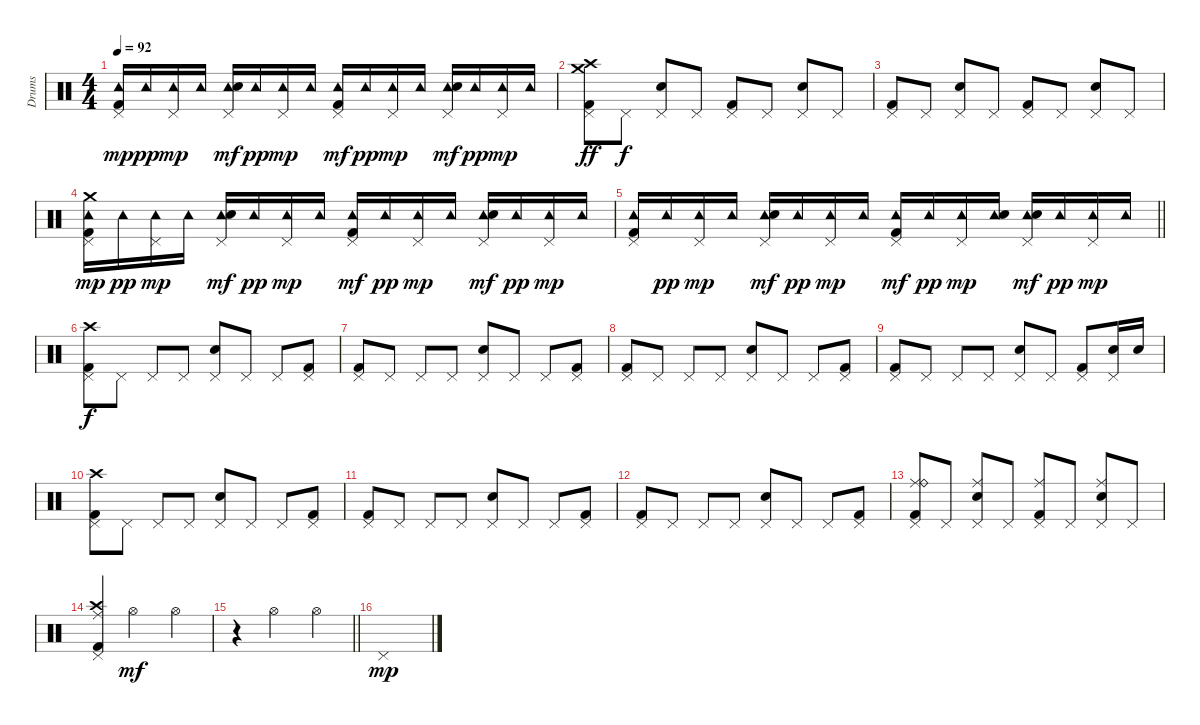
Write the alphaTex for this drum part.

\track ("Drums" "Drums") {instrument percussion}
\staff {score}
\articulation defaults
\ts (4 4)
\tempo 92
\clef neutral
\ks c
("Pedal Hi-Hat (hit)" "Tambourine (hit)" "Kick (hit) 2").16{dy mp} "Tambourine (hit)".16{dy pp} ("Pedal Hi-Hat (hit)" "Tambourine (hit)").16{dy mp} "Tambourine (hit)".16 ("Pedal Hi-Hat (hit)" "Tambourine (hit)" "Electric Snare (hit)").16{dy mf} "Tambourine (hit)".16{dy pp} ("Pedal Hi-Hat (hit)" "Tambourine (hit)").16{dy mp} "Tambourine (hit)".16 ("Pedal Hi-Hat (hit)" "Tambourine (hit)" "Kick (hit) 2").16{dy mf} "Tambourine (hit)".16{dy pp} ("Pedal Hi-Hat (hit)" "Tambourine (hit)").16{dy mp} "Tambourine (hit)".16 ("Pedal Hi-Hat (hit)" "Tambourine (hit)" "Electric Snare (hit)").16{dy mf} "Tambourine (hit)".16{dy pp} ("Pedal Hi-Hat (hit)" "Tambourine (hit)").16{dy mp} "Tambourine (hit)".16 |
("Pedal Hi-Hat (hit)" "Crash high (hit)" "Crash medium (hit)" "Kick (hit) 2").8{dy ff} "Pedal Hi-Hat (hit)".8{dy f} ("Pedal Hi-Hat (hit)" "Electric Snare (hit)").8 "Pedal Hi-Hat (hit)".8 ("Pedal Hi-Hat (hit)" "Kick (hit) 2").8 "Pedal Hi-Hat (hit)".8 ("Pedal Hi-Hat (hit)" "Electric Snare (hit)").8 "Pedal Hi-Hat (hit)".8 |
("Pedal Hi-Hat (hit)" "Kick (hit) 2").8 "Pedal Hi-Hat (hit)".8 ("Pedal Hi-Hat (hit)" "Electric Snare (hit)").8 "Pedal Hi-Hat (hit)".8 ("Pedal Hi-Hat (hit)" "Kick (hit) 2").8 "Pedal Hi-Hat (hit)".8 ("Pedal Hi-Hat (hit)" "Electric Snare (hit)").8 "Pedal Hi-Hat (hit)".8 |
("Pedal Hi-Hat (hit)" "Tambourine (hit)" "Crash medium (hit)" "Kick (hit) 2").16{dy mp} "Tambourine (hit)".16{dy pp} ("Pedal Hi-Hat (hit)" "Tambourine (hit)").16{dy mp} "Tambourine (hit)".16 ("Pedal Hi-Hat (hit)" "Tambourine (hit)" "Electric Snare (hit)").16{dy mf} "Tambourine (hit)".16{dy pp} ("Pedal Hi-Hat (hit)" "Tambourine (hit)").16{dy mp} "Tambourine (hit)".16 ("Pedal Hi-Hat (hit)" "Tambourine (hit)" "Kick (hit) 2").16{dy mf} "Tambourine (hit)".16{dy pp} ("Pedal Hi-Hat (hit)" "Tambourine (hit)").16{dy mp} "Tambourine (hit)".16 ("Pedal Hi-Hat (hit)" "Tambourine (hit)" "Electric Snare (hit)").16{dy mf} "Tambourine (hit)".16{dy pp} ("Pedal Hi-Hat (hit)" "Tambourine (hit)").16{dy mp} "Tambourine (hit)".16 |
\barLineRight lightlight
("Pedal Hi-Hat (hit)" "Tambourine (hit)" "Kick (hit) 2").16 "Tambourine (hit)".16{dy pp} ("Pedal Hi-Hat (hit)" "Tambourine (hit)").16{dy mp} "Tambourine (hit)".16 ("Pedal Hi-Hat (hit)" "Tambourine (hit)" "Electric Snare (hit)").16{dy mf} "Tambourine (hit)".16{dy pp} ("Pedal Hi-Hat (hit)" "Tambourine (hit)").16{dy mp} "Tambourine (hit)".16 ("Pedal Hi-Hat (hit)" "Tambourine (hit)" "Kick (hit) 2").16{dy mf} "Tambourine (hit)".16{dy pp} ("Pedal Hi-Hat (hit)" "Tambourine (hit)").16{dy mp} ("Tambourine (hit)" "Electric Snare (hit)").16 ("Pedal Hi-Hat (hit)" "Tambourine (hit)" "Electric Snare (hit)").16{dy mf} "Tambourine (hit)".16{dy pp} ("Pedal Hi-Hat (hit)" "Tambourine (hit)").16{dy mp} "Tambourine (hit)".16 |
("Pedal Hi-Hat (hit)" "Crash high (hit)" "Kick (hit) 2").8{dy f} "Pedal Hi-Hat (hit)".8 "Pedal Hi-Hat (hit)".8 "Pedal Hi-Hat (hit)".8 ("Pedal Hi-Hat (hit)" "Electric Snare (hit)").8 "Pedal Hi-Hat (hit)".8 "Pedal Hi-Hat (hit)".8 ("Pedal Hi-Hat (hit)" "Kick (hit) 2").8 |
("Pedal Hi-Hat (hit)" "Kick (hit) 2").8 "Pedal Hi-Hat (hit)".8 "Pedal Hi-Hat (hit)".8 "Pedal Hi-Hat (hit)".8 ("Pedal Hi-Hat (hit)" "Electric Snare (hit)").8 "Pedal Hi-Hat (hit)".8 "Pedal Hi-Hat (hit)".8 ("Pedal Hi-Hat (hit)" "Kick (hit) 2").8 |
("Pedal Hi-Hat (hit)" "Kick (hit) 2").8 "Pedal Hi-Hat (hit)".8 "Pedal Hi-Hat (hit)".8 "Pedal Hi-Hat (hit)".8 ("Pedal Hi-Hat (hit)" "Electric Snare (hit)").8 "Pedal Hi-Hat (hit)".8 "Pedal Hi-Hat (hit)".8 ("Pedal Hi-Hat (hit)" "Kick (hit) 2").8 |
("Pedal Hi-Hat (hit)" "Kick (hit) 2").8 "Pedal Hi-Hat (hit)".8 "Pedal Hi-Hat (hit)".8 "Pedal Hi-Hat (hit)".8 ("Pedal Hi-Hat (hit)" "Electric Snare (hit)").8 "Pedal Hi-Hat (hit)".8 ("Pedal Hi-Hat (hit)" "Kick (hit) 2").8 ("Pedal Hi-Hat (hit)" "Electric Snare (hit)").16 "Electric Snare (hit)".16 |
("Pedal Hi-Hat (hit)" "Crash high (hit)" "Kick (hit) 2").8 "Pedal Hi-Hat (hit)".8 "Pedal Hi-Hat (hit)".8 "Pedal Hi-Hat (hit)".8 ("Pedal Hi-Hat (hit)" "Electric Snare (hit)").8 "Pedal Hi-Hat (hit)".8 "Pedal Hi-Hat (hit)".8 ("Pedal Hi-Hat (hit)" "Kick (hit) 2").8 |
("Pedal Hi-Hat (hit)" "Kick (hit) 2").8 "Pedal Hi-Hat (hit)".8 "Pedal Hi-Hat (hit)".8 "Pedal Hi-Hat (hit)".8 ("Pedal Hi-Hat (hit)" "Electric Snare (hit)").8 "Pedal Hi-Hat (hit)".8 "Pedal Hi-Hat (hit)".8 ("Pedal Hi-Hat (hit)" "Kick (hit) 2").8 |
("Pedal Hi-Hat (hit)" "Kick (hit) 2").8 "Pedal Hi-Hat (hit)".8 "Pedal Hi-Hat (hit)".8 "Pedal Hi-Hat (hit)".8 ("Pedal Hi-Hat (hit)" "Electric Snare (hit)").8 "Pedal Hi-Hat (hit)".8 "Pedal Hi-Hat (hit)".8 ("Pedal Hi-Hat (hit)" "Kick (hit) 2").8 |
("Pedal Hi-Hat (hit)" "Ride (middle)" "Ride (bell)" "Kick (hit) 2").8 "Pedal Hi-Hat (hit)".8 ("Pedal Hi-Hat (hit)" "Ride (middle)" "Electric Snare (hit)").8 "Pedal Hi-Hat (hit)".8 ("Pedal Hi-Hat (hit)" "Ride (middle)" "Kick (hit) 2").8 "Pedal Hi-Hat (hit)".8 ("Pedal Hi-Hat (hit)" "Ride (middle)" "Electric Snare (hit)").8 "Pedal Hi-Hat (hit)".8 |
("Pedal Hi-Hat (hit)" "Ride (middle)" "Crash high (hit)" "Kick (hit) 2").4 "Hi-Hat (open)".2{dy mf} "Hi-Hat (open)".4 |
\barLineRight lightlight
r.4 "Hi-Hat (open)".2 "Hi-Hat (open)".4 |
"Pedal Hi-Hat (hit)".1{dy mp}
